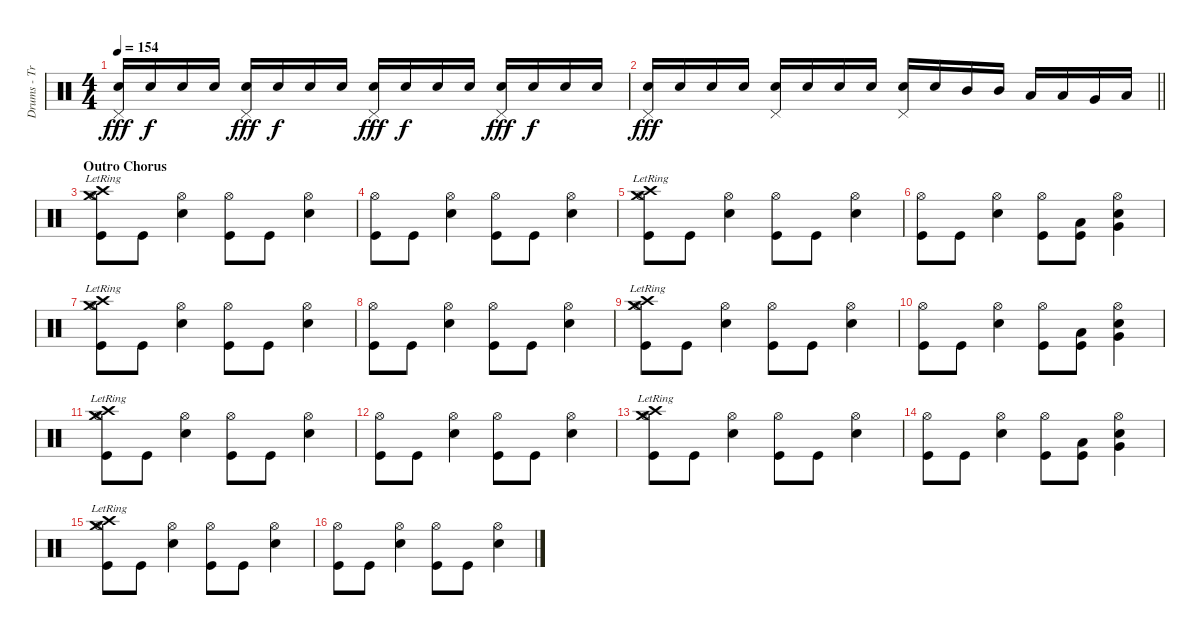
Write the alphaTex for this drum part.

\track ("Drums - Travis" "Drums - Tr") {instrument percussion}
\staff {score}
\articulation defaults
\ts (4 4)
\tempo 154
\clef neutral
\ks c
("Pedal Hi-Hat (hit)" "Snare (hit) 2").16{dy fff} "Snare (hit) 2".16{dy f} "Snare (hit) 2".16 "Snare (hit) 2".16 ("Pedal Hi-Hat (hit)" "Snare (hit) 2").16{dy fff} "Snare (hit) 2".16{dy f} "Snare (hit) 2".16 "Snare (hit) 2".16 ("Pedal Hi-Hat (hit)" "Snare (hit) 2").16{dy fff} "Snare (hit) 2".16{dy f} "Snare (hit) 2".16 "Snare (hit) 2".16 ("Pedal Hi-Hat (hit)" "Snare (hit) 2").16{dy fff} "Snare (hit) 2".16{dy f} "Snare (hit) 2".16 "Snare (hit) 2".16 |
\barLineRight lightlight
("Pedal Hi-Hat (hit)" "Snare (hit) 2").16{dy fff} "Snare (hit) 2".16 "Snare (hit) 2".16 "Snare (hit) 2".16 ("Pedal Hi-Hat (hit)" "Snare (hit) 2").16 "Snare (hit) 2".16 "Snare (hit) 2".16 "Snare (hit) 2".16 ("Pedal Hi-Hat (hit)" "Snare (hit) 2").16 "Snare (hit) 2".16 "Mid Tom (hit)".16 "Mid Tom (hit)".16 "Low Tom (hit)".16 "Low Tom (hit)".16 "Very Low Tom (hit)".16 "Low Floor Tom (hit)".16 |
\section ("" "Outro Chorus ")
("Crash high (hit)"{lr} "Hi-Hat (open)" "Crash medium (hit)"{lr} "Kick (hit)").8 "Kick (hit)".8 ("Hi-Hat (open)" "Snare (hit) 2").4 ("Hi-Hat (open)" "Kick (hit)").8 "Kick (hit)".8 ("Hi-Hat (open)" "Snare (hit) 2").4 |
("Hi-Hat (open)" "Kick (hit)").8 "Kick (hit)".8 ("Hi-Hat (open)" "Snare (hit) 2").4 ("Hi-Hat (open)" "Kick (hit)").8 "Kick (hit)".8 ("Hi-Hat (open)" "Snare (hit) 2").4 |
("Crash high (hit)"{lr} "Hi-Hat (open)" "Crash medium (hit)"{lr} "Kick (hit)").8 "Kick (hit)".8 ("Hi-Hat (open)" "Snare (hit) 2").4 ("Hi-Hat (open)" "Kick (hit)").8 "Kick (hit)".8 ("Hi-Hat (open)" "Snare (hit) 2").4 |
("Hi-Hat (open)" "Kick (hit)").8 "Kick (hit)".8 ("Hi-Hat (open)" "Snare (hit) 2").4 ("Hi-Hat (open)" "Kick (hit)").8 ("Low Tom (hit)" "Kick (hit)").8 ("Hi-Hat (open)" "Very Low Tom (hit)" "Snare (hit) 2").4 |
("Crash high (hit)"{lr} "Hi-Hat (open)" "Crash medium (hit)"{lr} "Kick (hit)").8 "Kick (hit)".8 ("Hi-Hat (open)" "Snare (hit) 2").4 ("Hi-Hat (open)" "Kick (hit)").8 "Kick (hit)".8 ("Hi-Hat (open)" "Snare (hit) 2").4 |
("Hi-Hat (open)" "Kick (hit)").8 "Kick (hit)".8 ("Hi-Hat (open)" "Snare (hit) 2").4 ("Hi-Hat (open)" "Kick (hit)").8 "Kick (hit)".8 ("Hi-Hat (open)" "Snare (hit) 2").4 |
("Crash high (hit)"{lr} "Hi-Hat (open)" "Crash medium (hit)"{lr} "Kick (hit)").8 "Kick (hit)".8 ("Hi-Hat (open)" "Snare (hit) 2").4 ("Hi-Hat (open)" "Kick (hit)").8 "Kick (hit)".8 ("Hi-Hat (open)" "Snare (hit) 2").4 |
("Hi-Hat (open)" "Kick (hit)").8 "Kick (hit)".8 ("Hi-Hat (open)" "Snare (hit) 2").4 ("Hi-Hat (open)" "Kick (hit)").8 ("Low Tom (hit)" "Kick (hit)").8 ("Hi-Hat (open)" "Very Low Tom (hit)" "Snare (hit) 2").4 |
("Crash high (hit)"{lr} "Hi-Hat (open)" "Crash medium (hit)"{lr} "Kick (hit)").8 "Kick (hit)".8 ("Hi-Hat (open)" "Snare (hit) 2").4 ("Hi-Hat (open)" "Kick (hit)").8 "Kick (hit)".8 ("Hi-Hat (open)" "Snare (hit) 2").4 |
("Hi-Hat (open)" "Kick (hit)").8 "Kick (hit)".8 ("Hi-Hat (open)" "Snare (hit) 2").4 ("Hi-Hat (open)" "Kick (hit)").8 "Kick (hit)".8 ("Hi-Hat (open)" "Snare (hit) 2").4 |
("Crash high (hit)"{lr} "Hi-Hat (open)" "Crash medium (hit)"{lr} "Kick (hit)").8 "Kick (hit)".8 ("Hi-Hat (open)" "Snare (hit) 2").4 ("Hi-Hat (open)" "Kick (hit)").8 "Kick (hit)".8 ("Hi-Hat (open)" "Snare (hit) 2").4 |
("Hi-Hat (open)" "Kick (hit)").8 "Kick (hit)".8 ("Hi-Hat (open)" "Snare (hit) 2").4 ("Hi-Hat (open)" "Kick (hit)").8 ("Low Tom (hit)" "Kick (hit)").8 ("Hi-Hat (open)" "Very Low Tom (hit)" "Snare (hit) 2").4 |
("Crash high (hit)"{lr} "Hi-Hat (open)" "Crash medium (hit)"{lr} "Kick (hit)").8 "Kick (hit)".8 ("Hi-Hat (open)" "Snare (hit) 2").4 ("Hi-Hat (open)" "Kick (hit)").8 "Kick (hit)".8 ("Hi-Hat (open)" "Snare (hit) 2").4 |
("Hi-Hat (open)" "Kick (hit)").8 "Kick (hit)".8 ("Hi-Hat (open)" "Snare (hit) 2").4 ("Hi-Hat (open)" "Kick (hit)").8 "Kick (hit)".8 ("Hi-Hat (open)" "Snare (hit) 2").4
